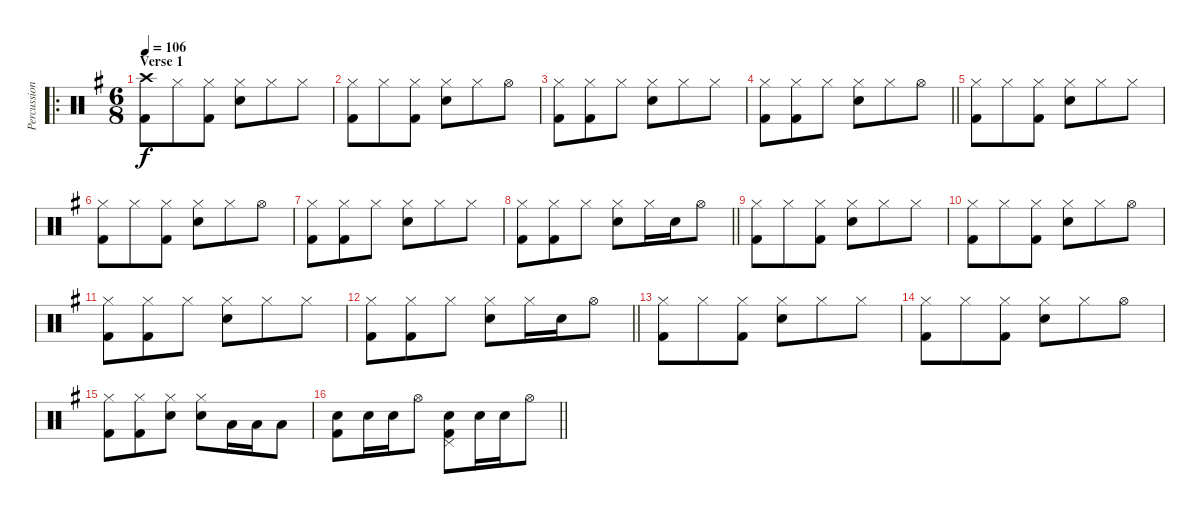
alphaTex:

\track ("Percussion" "Percussion") {instrument percussion}
\staff {score}
\articulation defaults
\ro
\ts (6 8)
\section ("" "Verse 1")
\tempo 106
\clef neutral
\ks g
("Crash high (hit)" "Kick (hit) 2").8{dy f} "Hi-Hat (closed)".8 ("Hi-Hat (closed)" "Kick (hit) 2").8 ("Hi-Hat (closed)" "Snare (hit) 2").8 "Hi-Hat (closed)".8 "Hi-Hat (closed)".8 |
("Hi-Hat (closed)" "Kick (hit) 2").8 "Hi-Hat (closed)".8 ("Hi-Hat (closed)" "Kick (hit) 2").8 ("Hi-Hat (closed)" "Snare (hit) 2").8 "Hi-Hat (closed)".8 "Hi-Hat (open)".8 |
("Hi-Hat (closed)" "Kick (hit) 2").8 ("Hi-Hat (closed)" "Kick (hit) 2").8 "Hi-Hat (closed)".8 ("Hi-Hat (closed)" "Snare (hit) 2").8 "Hi-Hat (closed)".8 "Hi-Hat (closed)".8 |
\barLineRight lightlight
("Hi-Hat (closed)" "Kick (hit) 2").8 ("Hi-Hat (closed)" "Kick (hit) 2").8 "Hi-Hat (closed)".8 ("Hi-Hat (closed)" "Snare (hit) 2").8 "Hi-Hat (closed)".8 "Hi-Hat (open)".8 |
("Hi-Hat (closed)" "Kick (hit) 2").8 "Hi-Hat (closed)".8 ("Hi-Hat (closed)" "Kick (hit) 2").8 ("Hi-Hat (closed)" "Snare (hit) 2").8 "Hi-Hat (closed)".8 "Hi-Hat (closed)".8 |
("Hi-Hat (closed)" "Kick (hit) 2").8 "Hi-Hat (closed)".8 ("Hi-Hat (closed)" "Kick (hit) 2").8 ("Hi-Hat (closed)" "Snare (hit) 2").8 "Hi-Hat (closed)".8 "Hi-Hat (open)".8 |
("Hi-Hat (closed)" "Kick (hit) 2").8 ("Hi-Hat (closed)" "Kick (hit) 2").8 "Hi-Hat (closed)".8 ("Hi-Hat (closed)" "Snare (hit) 2").8 "Hi-Hat (closed)".8 "Hi-Hat (closed)".8 |
\barLineRight lightlight
("Hi-Hat (closed)" "Kick (hit) 2").8 ("Hi-Hat (closed)" "Kick (hit) 2").8 "Hi-Hat (closed)".8 ("Hi-Hat (closed)" "Snare (hit) 2").8 "Hi-Hat (closed)".16 "Snare (hit) 2".16 "Hi-Hat (open)".8 |
("Hi-Hat (closed)" "Kick (hit) 2").8 "Hi-Hat (closed)".8 ("Hi-Hat (closed)" "Kick (hit) 2").8 ("Hi-Hat (closed)" "Snare (hit) 2").8 "Hi-Hat (closed)".8 "Hi-Hat (closed)".8 |
("Hi-Hat (closed)" "Kick (hit) 2").8 "Hi-Hat (closed)".8 ("Hi-Hat (closed)" "Kick (hit) 2").8 ("Hi-Hat (closed)" "Snare (hit) 2").8 "Hi-Hat (closed)".8 "Hi-Hat (open)".8 |
("Hi-Hat (closed)" "Kick (hit) 2").8 ("Hi-Hat (closed)" "Kick (hit) 2").8 "Hi-Hat (closed)".8 ("Hi-Hat (closed)" "Snare (hit) 2").8 "Hi-Hat (closed)".8 "Hi-Hat (closed)".8 |
\barLineRight lightlight
("Hi-Hat (closed)" "Kick (hit) 2").8 ("Hi-Hat (closed)" "Kick (hit) 2").8 "Hi-Hat (closed)".8 ("Hi-Hat (closed)" "Snare (hit) 2").8 "Hi-Hat (closed)".16 "Snare (hit) 2".16 "Hi-Hat (open)".8 |
("Hi-Hat (closed)" "Kick (hit) 2").8 "Hi-Hat (closed)".8 ("Hi-Hat (closed)" "Kick (hit) 2").8 ("Hi-Hat (closed)" "Snare (hit) 2").8 "Hi-Hat (closed)".8 "Hi-Hat (closed)".8 |
("Hi-Hat (closed)" "Kick (hit) 2").8 "Hi-Hat (closed)".8 ("Hi-Hat (closed)" "Kick (hit) 2").8 ("Hi-Hat (closed)" "Snare (hit) 2").8 "Hi-Hat (closed)".8 "Hi-Hat (open)".8 |
("Hi-Hat (closed)" "Kick (hit) 2").8 ("Hi-Hat (closed)" "Kick (hit) 2").8 ("Hi-Hat (closed)" "Snare (hit) 2").8 ("Hi-Hat (closed)" "Snare (hit) 2").8 "Low Tom (hit)".16 "Low Tom (hit)".16 "Low Floor Tom (hit)".8 |
\barLineRight lightlight
("Snare (hit) 2" "Kick (hit) 2").8 "Snare (hit) 2".16 "Snare (hit) 2".16 "Hi-Hat (open)".8 ("Snare (hit) 2" "Pedal Hi-Hat (hit)" "Kick (hit) 2").8 "Snare (hit) 2".16 "Snare (hit) 2".16 "Hi-Hat (open)".8
